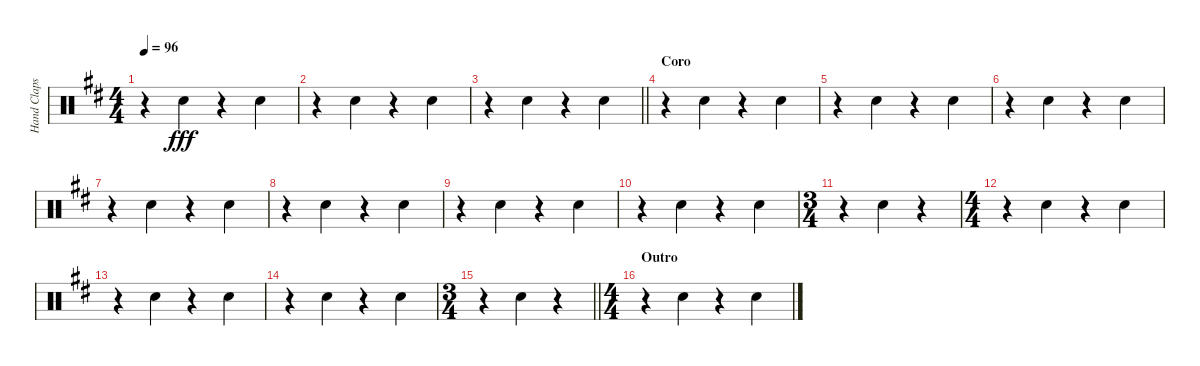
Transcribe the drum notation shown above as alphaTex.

\track ("Hand Claps" "Hand Claps") {instrument percussion}
\staff {score}
\articulation defaults
\ts (4 4)
\tempo 96
\clef neutral
\ks d
r.4{dy fff} "Hand Clap (hit)".4 r.4 "Hand Clap (hit)".4 |
r.4 "Hand Clap (hit)".4 r.4 "Hand Clap (hit)".4 |
\barLineRight lightlight
r.4 "Hand Clap (hit)".4 r.4 "Hand Clap (hit)".4 |
\section ("" "Coro")
r.4 "Hand Clap (hit)".4 r.4 "Hand Clap (hit)".4 |
r.4 "Hand Clap (hit)".4 r.4 "Hand Clap (hit)".4 |
r.4 "Hand Clap (hit)".4 r.4 "Hand Clap (hit)".4 |
r.4 "Hand Clap (hit)".4 r.4 "Hand Clap (hit)".4 |
r.4 "Hand Clap (hit)".4 r.4 "Hand Clap (hit)".4 |
r.4 "Hand Clap (hit)".4 r.4 "Hand Clap (hit)".4 |
r.4 "Hand Clap (hit)".4 r.4 "Hand Clap (hit)".4 |
\ts (3 4)
r.4 "Hand Clap (hit)".4 r.4 |
\ts (4 4)
r.4 "Hand Clap (hit)".4 r.4 "Hand Clap (hit)".4 |
r.4 "Hand Clap (hit)".4 r.4 "Hand Clap (hit)".4 |
r.4 "Hand Clap (hit)".4 r.4 "Hand Clap (hit)".4 |
\ts (3 4)
\barLineRight lightlight
r.4 "Hand Clap (hit)".4 r.4 |
\ts (4 4)
\section ("" "Outro")
r.4 "Hand Clap (hit)".4 r.4 "Hand Clap (hit)".4
